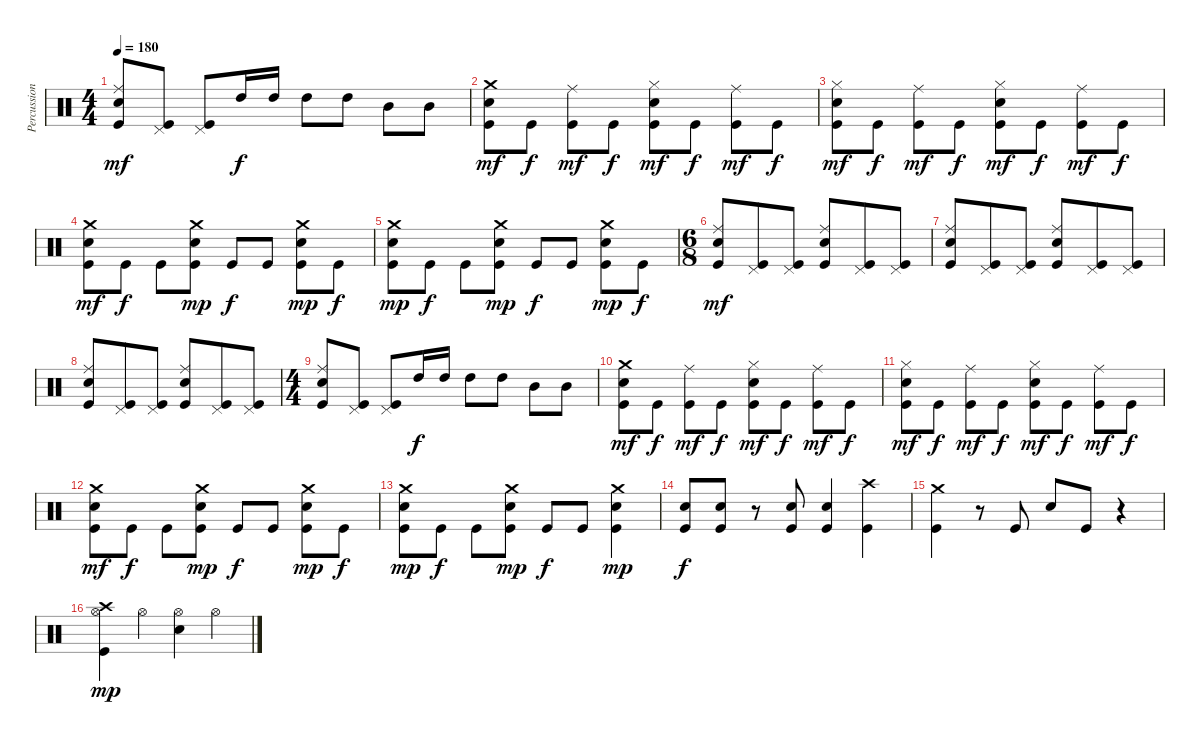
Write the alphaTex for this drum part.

\track ("Percussion" "Percussion") {instrument percussion}
\staff {score}
\articulation defaults
\ts (4 4)
\tempo 180
\clef neutral
\ks c
("Ride (middle)" "Snare (hit) 2" "Kick (hit)").8{dy mf} ("Pedal Hi-Hat (hit)" "Kick (hit)").8 ("Pedal Hi-Hat (hit)" "Kick (hit)").8 "High Tom (hit)".16{dy f} "High Tom (hit)".16 "High Tom (hit)".8 "High Tom (hit)".8 "Mid Tom (hit)".8 "Mid Tom (hit)".8 |
("Crash medium (hit)" "Snare (hit) 2" "Kick (hit)").8{dy mf} "Kick (hit)".8{dy f} ("Ride (middle)" "Kick (hit)").8{dy mf} "Kick (hit)".8{dy f} ("Hi-Hat (closed)" "Snare (hit) 2" "Kick (hit)").8{dy mf} "Kick (hit)".8{dy f} ("Ride (middle)" "Kick (hit)").8{dy mf} "Kick (hit)".8{dy f} |
("Hi-Hat (closed)" "Snare (hit) 2" "Kick (hit)").8{dy mf} "Kick (hit)".8{dy f} ("Ride (middle)" "Kick (hit)").8{dy mf} "Kick (hit)".8{dy f} ("Hi-Hat (closed)" "Snare (hit) 2" "Kick (hit)").8{dy mf} "Kick (hit)".8{dy f} ("Ride (middle)" "Kick (hit)").8{dy mf} "Kick (hit)".8{dy f} |
("Crash medium (hit)" "Snare (hit) 2" "Kick (hit)").8{dy mf} "Kick (hit)".8{dy f} "Kick (hit)".8 ("Crash medium (hit)" "Snare (hit) 2" "Kick (hit)").8{dy mp} "Kick (hit)".8{dy f} "Kick (hit)".8 ("Crash medium (hit)" "Snare (hit) 2" "Kick (hit)").8{dy mp} "Kick (hit)".8{dy f} |
("Crash medium (hit)" "Snare (hit) 2" "Kick (hit)").8{dy mp} "Kick (hit)".8{dy f} "Kick (hit)".8 ("Crash medium (hit)" "Snare (hit) 2" "Kick (hit)").8{dy mp} "Kick (hit)".8{dy f} "Kick (hit)".8 ("Crash medium (hit)" "Snare (hit) 2" "Kick (hit)").8{dy mp} "Kick (hit)".8{dy f} |
\ts (6 8)
("Ride (middle)" "Snare (hit) 2" "Kick (hit)").8{dy mf} ("Pedal Hi-Hat (hit)" "Kick (hit)").8 ("Pedal Hi-Hat (hit)" "Kick (hit)").8 ("Ride (middle)" "Snare (hit) 2" "Kick (hit)").8 ("Pedal Hi-Hat (hit)" "Kick (hit)").8 ("Pedal Hi-Hat (hit)" "Kick (hit)").8 |
("Ride (middle)" "Snare (hit) 2" "Kick (hit)").8 ("Pedal Hi-Hat (hit)" "Kick (hit)").8 ("Pedal Hi-Hat (hit)" "Kick (hit)").8 ("Ride (middle)" "Snare (hit) 2" "Kick (hit)").8 ("Pedal Hi-Hat (hit)" "Kick (hit)").8 ("Pedal Hi-Hat (hit)" "Kick (hit)").8 |
("Ride (middle)" "Snare (hit) 2" "Kick (hit)").8 ("Pedal Hi-Hat (hit)" "Kick (hit)").8 ("Pedal Hi-Hat (hit)" "Kick (hit)").8 ("Ride (middle)" "Snare (hit) 2" "Kick (hit)").8 ("Pedal Hi-Hat (hit)" "Kick (hit)").8 ("Pedal Hi-Hat (hit)" "Kick (hit)").8 |
\ts (4 4)
("Ride (middle)" "Snare (hit) 2" "Kick (hit)").8 ("Pedal Hi-Hat (hit)" "Kick (hit)").8 ("Pedal Hi-Hat (hit)" "Kick (hit)").8 "High Tom (hit)".16{dy f} "High Tom (hit)".16 "High Tom (hit)".8 "High Tom (hit)".8 "Mid Tom (hit)".8 "Mid Tom (hit)".8 |
("Crash medium (hit)" "Snare (hit) 2" "Kick (hit)").8{dy mf} "Kick (hit)".8{dy f} ("Ride (middle)" "Kick (hit)").8{dy mf} "Kick (hit)".8{dy f} ("Hi-Hat (closed)" "Snare (hit) 2" "Kick (hit)").8{dy mf} "Kick (hit)".8{dy f} ("Ride (middle)" "Kick (hit)").8{dy mf} "Kick (hit)".8{dy f} |
("Hi-Hat (closed)" "Snare (hit) 2" "Kick (hit)").8{dy mf} "Kick (hit)".8{dy f} ("Ride (middle)" "Kick (hit)").8{dy mf} "Kick (hit)".8{dy f} ("Hi-Hat (closed)" "Snare (hit) 2" "Kick (hit)").8{dy mf} "Kick (hit)".8{dy f} ("Ride (middle)" "Kick (hit)").8{dy mf} "Kick (hit)".8{dy f} |
("Crash medium (hit)" "Snare (hit) 2" "Kick (hit)").8{dy mf} "Kick (hit)".8{dy f} "Kick (hit)".8 ("Crash medium (hit)" "Snare (hit) 2" "Kick (hit)").8{dy mp} "Kick (hit)".8{dy f} "Kick (hit)".8 ("Crash medium (hit)" "Snare (hit) 2" "Kick (hit)").8{dy mp} "Kick (hit)".8{dy f} |
("Crash medium (hit)" "Snare (hit) 2" "Kick (hit)").8{dy mp} "Kick (hit)".8{dy f} "Kick (hit)".8 ("Crash medium (hit)" "Snare (hit) 2" "Kick (hit)").8{dy mp} "Kick (hit)".8{dy f} "Kick (hit)".8 ("Crash medium (hit)" "Snare (hit) 2" "Kick (hit)").4{dy mp} |
("Snare (hit) 2" "Kick (hit)").8{dy f} ("Snare (hit) 2" "Kick (hit)").8 r.8 ("Snare (hit) 2" "Kick (hit)").8 ("Snare (hit) 2" "Kick (hit)").4 ("Crash high (hit)" "Kick (hit)").4 |
("Crash medium (hit)" "Kick (hit)").4 r.8 "Kick (hit)".8 "Snare (hit) 2".8 "Kick (hit)".8 r.4 |
("Crash high (hit)" "Hi-Hat (open)" "Kick (hit)").4{dy mp} "Hi-Hat (open)".4 ("Hi-Hat (open)" "Snare (hit) 2").4 "Hi-Hat (open)".4
